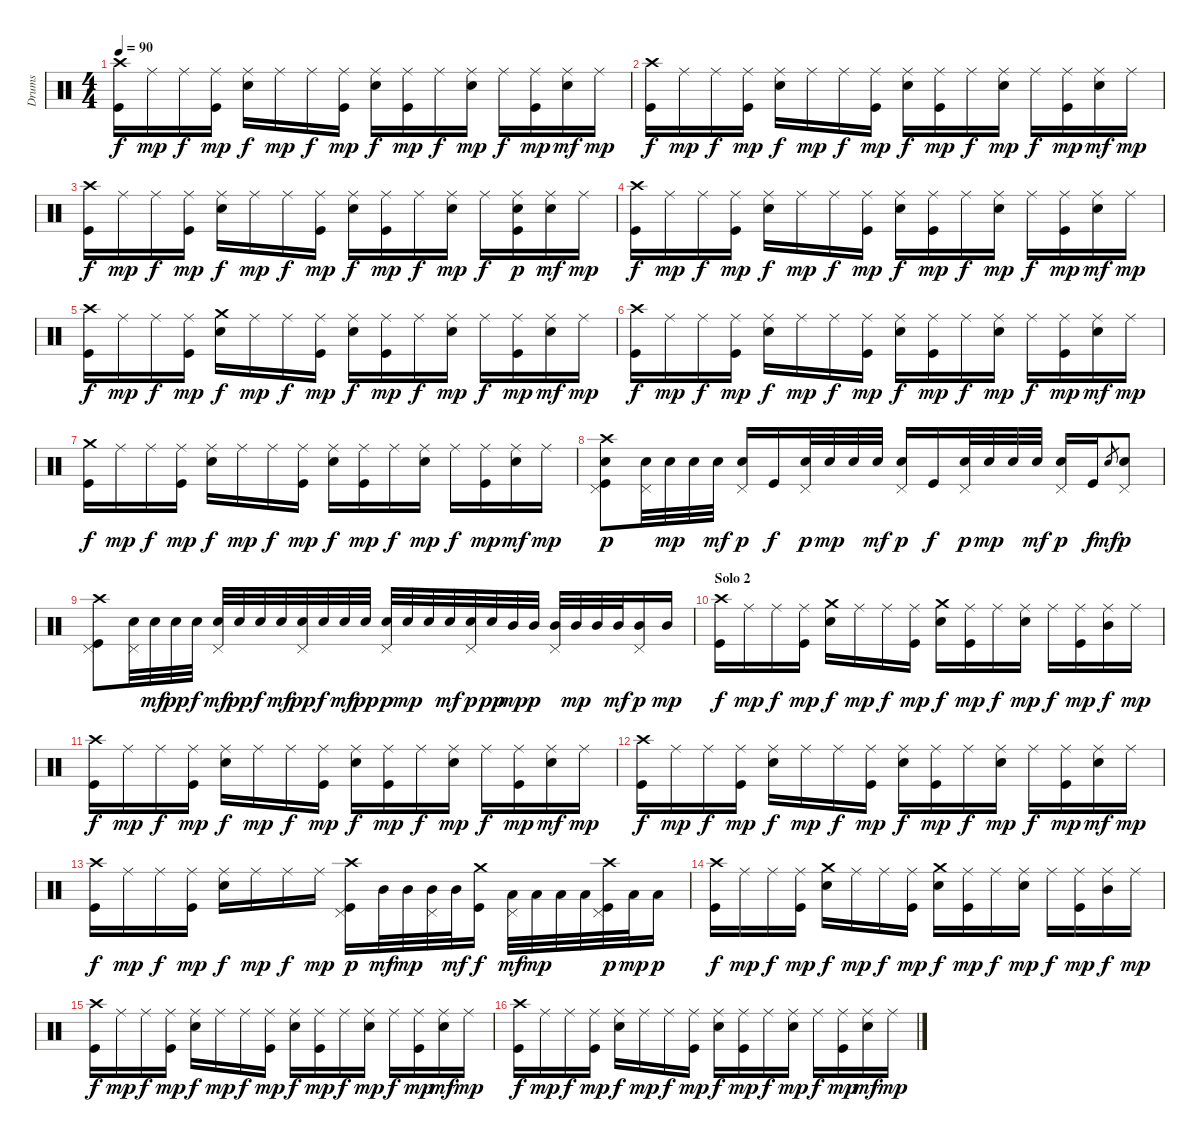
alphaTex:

\track ("Drums" "Drums") {instrument percussion}
\staff {score}
\articulation defaults
\ts (4 4)
\tempo 90
\clef neutral
\ks c
("Crash high (hit)" "Kick (hit)").16{dy f} "Ride (middle)".16{dy mp} "Ride (middle)".16{dy f} ("Ride (middle)" "Kick (hit)").16{dy mp} ("Ride (middle)" "Snare (hit) 2").16{dy f} "Ride (middle)".16{dy mp} "Ride (middle)".16{dy f} ("Ride (middle)" "Kick (hit)").16{dy mp} ("Ride (middle)" "Snare (hit) 2").16{dy f} ("Ride (middle)" "Kick (hit)").16{dy mp} "Ride (middle)".16{dy f} ("Ride (middle)" "Snare (hit) 2").16{dy mp} "Ride (middle)".16{dy f} ("Ride (middle)" "Kick (hit)").16{dy mp} ("Ride (middle)" "Snare (hit) 2").16{dy mf} "Ride (middle)".16{dy mp} |
("Crash high (hit)" "Kick (hit)").16{dy f} "Ride (middle)".16{dy mp} "Ride (middle)".16{dy f} ("Ride (middle)" "Kick (hit)").16{dy mp} ("Ride (middle)" "Snare (hit) 2").16{dy f} "Ride (middle)".16{dy mp} "Ride (middle)".16{dy f} ("Ride (middle)" "Kick (hit)").16{dy mp} ("Ride (middle)" "Snare (hit) 2").16{dy f} ("Ride (middle)" "Kick (hit)").16{dy mp} "Ride (middle)".16{dy f} ("Ride (middle)" "Snare (hit) 2").16{dy mp} "Ride (middle)".16{dy f} ("Ride (middle)" "Kick (hit)").16{dy mp} ("Ride (middle)" "Snare (hit) 2").16{dy mf} "Ride (middle)".16{dy mp} |
("Crash high (hit)" "Kick (hit)").16{dy f} "Ride (middle)".16{dy mp} "Ride (middle)".16{dy f} ("Ride (middle)" "Kick (hit)").16{dy mp} ("Ride (middle)" "Snare (hit) 2").16{dy f} "Ride (middle)".16{dy mp} "Ride (middle)".16{dy f} ("Ride (middle)" "Kick (hit)").16{dy mp} ("Ride (middle)" "Snare (hit) 2").16{dy f} ("Ride (middle)" "Kick (hit)").16{dy mp} "Ride (middle)".16{dy f} ("Ride (middle)" "Snare (hit) 2").16{dy mp} "Ride (middle)".16{dy f} ("Ride (middle)" "Snare (hit) 2" "Kick (hit)").16{dy p} ("Ride (middle)" "Snare (hit) 2").16{dy mf} "Ride (middle)".16{dy mp} |
("Crash high (hit)" "Kick (hit)").16{dy f} "Ride (middle)".16{dy mp} "Ride (middle)".16{dy f} ("Ride (middle)" "Kick (hit)").16{dy mp} ("Ride (middle)" "Snare (hit) 2").16{dy f} "Ride (middle)".16{dy mp} "Ride (middle)".16{dy f} ("Ride (middle)" "Kick (hit)").16{dy mp} ("Ride (middle)" "Snare (hit) 2").16{dy f} ("Ride (middle)" "Kick (hit)").16{dy mp} "Ride (middle)".16{dy f} ("Ride (middle)" "Snare (hit) 2").16{dy mp} "Ride (middle)".16{dy f} ("Ride (middle)" "Kick (hit)").16{dy mp} ("Ride (middle)" "Snare (hit) 2").16{dy mf} "Ride (middle)".16{dy mp} |
("Crash high (hit)" "Kick (hit)").16{dy f} "Ride (middle)".16{dy mp} "Ride (middle)".16{dy f} ("Ride (middle)" "Kick (hit)").16{dy mp} ("Crash medium (hit)" "Snare (hit) 2").16{dy f} "Ride (middle)".16{dy mp} "Ride (middle)".16{dy f} ("Ride (middle)" "Kick (hit)").16{dy mp} ("Ride (middle)" "Snare (hit) 2").16{dy f} ("Ride (middle)" "Kick (hit)").16{dy mp} "Ride (middle)".16{dy f} ("Ride (middle)" "Snare (hit) 2").16{dy mp} "Ride (middle)".16{dy f} ("Ride (middle)" "Kick (hit)").16{dy mp} ("Ride (middle)" "Snare (hit) 2").16{dy mf} "Ride (middle)".16{dy mp} |
("Crash high (hit)" "Kick (hit)").16{dy f} "Ride (middle)".16{dy mp} "Ride (middle)".16{dy f} ("Ride (middle)" "Kick (hit)").16{dy mp} ("Ride (middle)" "Snare (hit) 2").16{dy f} "Ride (middle)".16{dy mp} "Ride (middle)".16{dy f} ("Ride (middle)" "Kick (hit)").16{dy mp} ("Ride (middle)" "Snare (hit) 2").16{dy f} ("Ride (middle)" "Kick (hit)").16{dy mp} "Ride (middle)".16{dy f} ("Ride (middle)" "Snare (hit) 2").16{dy mp} "Ride (middle)".16{dy f} ("Ride (middle)" "Kick (hit)").16{dy mp} ("Ride (middle)" "Snare (hit) 2").16{dy mf} "Ride (middle)".16{dy mp} |
("Crash medium (hit)" "Kick (hit)").16{dy f} "Ride (middle)".16{dy mp} "Ride (middle)".16{dy f} ("Ride (middle)" "Kick (hit)").16{dy mp} ("Ride (middle)" "Snare (hit) 2").16{dy f} "Ride (middle)".16{dy mp} "Ride (middle)".16{dy f} ("Ride (middle)" "Kick (hit)").16{dy mp} ("Ride (middle)" "Snare (hit) 2").16{dy f} ("Ride (middle)" "Kick (hit)").16{dy mp} "Ride (middle)".16{dy f} ("Ride (middle)" "Snare (hit) 2").16{dy mp} "Ride (middle)".16{dy f} ("Ride (middle)" "Kick (hit)").16{dy mp} ("Ride (middle)" "Snare (hit) 2").16{dy mf} "Ride (middle)".16{dy mp} |
("Crash high (hit)" "Pedal Hi-Hat (hit)" "Snare (hit) 2" "Kick (hit)").8{dy p} ("Pedal Hi-Hat (hit)" "Snare (hit) 2").32 "Snare (hit) 2".32{dy mp} "Snare (hit) 2".32 "Snare (hit) 2".32{dy mf} ("Pedal Hi-Hat (hit)" "Snare (hit) 2").16{dy p} "Kick (hit)".16{dy f} ("Pedal Hi-Hat (hit)" "Snare (hit) 2").32{dy p} "Snare (hit) 2".32{dy mp} "Snare (hit) 2".32 "Snare (hit) 2".32{dy mf} ("Pedal Hi-Hat (hit)" "Snare (hit) 2").16{dy p} "Kick (hit)".16{dy f} ("Pedal Hi-Hat (hit)" "Snare (hit) 2").32{dy p} "Snare (hit) 2".32{dy mp} "Snare (hit) 2".32 "Snare (hit) 2".32{dy mf} ("Pedal Hi-Hat (hit)" "Snare (hit) 2").16{dy p} "Kick (hit)".16{dy f} "Snare (hit) 2".8{gr dy mf} ("Pedal Hi-Hat (hit)" "Snare (hit) 2").8{dy p} |
("Crash high (hit)" "Pedal Hi-Hat (hit)" "Kick (hit)").8 ("Pedal Hi-Hat (hit)" "Snare (hit) 2").32 "Snare (hit) 2".32{dy mf} "Snare (hit) 2".32{dy pp} "Snare (hit) 2".32{dy f} ("Pedal Hi-Hat (hit)" "Snare (hit) 2").32{dy mf} "Snare (hit) 2".32{dy pp} "Snare (hit) 2".32{dy f} "Snare (hit) 2".32{dy mf} ("Pedal Hi-Hat (hit)" "Snare (hit) 2").32{dy pp} "Snare (hit) 2".32{dy f} "Snare (hit) 2".32{dy mf} "Snare (hit) 2".32{dy pp} ("Pedal Hi-Hat (hit)" "Snare (hit) 2").32{dy p} "Snare (hit) 2".32{dy mp} "Snare (hit) 2".32 "Snare (hit) 2".32{dy mf} ("Pedal Hi-Hat (hit)" "Snare (hit) 2").32{dy p} "Snare (hit) 2".32{dy pp} "Mid Tom (hit)".32{dy mp} "Mid Tom (hit)".32{dy p} ("Pedal Hi-Hat (hit)" "Mid Tom (hit)").32 "Mid Tom (hit)".32{dy mp} "Mid Tom (hit)".32 "Mid Tom (hit)".32{dy mf} ("Pedal Hi-Hat (hit)" "Mid Tom (hit)").16{dy p} "Mid Tom (hit)".16{dy mp} |
\section ("" "Solo 2")
("Crash high (hit)" "Kick (hit)").16{dy f} "Ride (middle)".16{dy mp} "Ride (middle)".16{dy f} ("Ride (middle)" "Kick (hit)").16{dy mp} ("Crash medium (hit)" "Snare (hit) 2").16{dy f} "Ride (middle)".16{dy mp} "Ride (middle)".16{dy f} ("Ride (middle)" "Kick (hit)").16{dy mp} ("Crash medium (hit)" "Snare (hit) 2").16{dy f} ("Ride (middle)" "Kick (hit)").16{dy mp} "Ride (middle)".16{dy f} ("Ride (middle)" "Snare (hit) 2").16{dy mp} "Ride (middle)".16{dy f} ("Ride (middle)" "Kick (hit)").16{dy mp} ("Ride (middle)" "Mid Tom (hit)").16{dy f} "Ride (middle)".16{dy mp} |
("Crash high (hit)" "Kick (hit)").16{dy f} "Ride (middle)".16{dy mp} "Ride (middle)".16{dy f} ("Ride (middle)" "Kick (hit)").16{dy mp} ("Ride (middle)" "Snare (hit) 2").16{dy f} "Ride (middle)".16{dy mp} "Ride (middle)".16{dy f} ("Ride (middle)" "Kick (hit)").16{dy mp} ("Ride (middle)" "Snare (hit) 2").16{dy f} ("Ride (middle)" "Kick (hit)").16{dy mp} "Ride (middle)".16{dy f} ("Ride (middle)" "Snare (hit) 2").16{dy mp} "Ride (middle)".16{dy f} ("Ride (middle)" "Kick (hit)").16{dy mp} ("Ride (middle)" "Snare (hit) 2").16{dy mf} "Ride (middle)".16{dy mp} |
("Crash high (hit)" "Kick (hit)").16{dy f} "Ride (middle)".16{dy mp} "Ride (middle)".16{dy f} ("Ride (middle)" "Kick (hit)").16{dy mp} ("Ride (middle)" "Snare (hit) 2").16{dy f} "Ride (middle)".16{dy mp} "Ride (middle)".16{dy f} ("Ride (middle)" "Kick (hit)").16{dy mp} ("Ride (middle)" "Snare (hit) 2").16{dy f} ("Ride (middle)" "Kick (hit)").16{dy mp} "Ride (middle)".16{dy f} ("Ride (middle)" "Snare (hit) 2").16{dy mp} "Ride (middle)".16{dy f} ("Ride (middle)" "Kick (hit)").16{dy mp} ("Ride (middle)" "Snare (hit) 2").16{dy mf} "Ride (middle)".16{dy mp} |
("Crash high (hit)" "Kick (hit)").16{dy f} "Ride (middle)".16{dy mp} "Ride (middle)".16{dy f} ("Ride (middle)" "Kick (hit)").16{dy mp} ("Ride (middle)" "Snare (hit) 2").16{dy f} "Ride (middle)".16{dy mp} "Ride (middle)".16{dy f} "Ride (middle)".16{dy mp} ("Crash high (hit)" "Pedal Hi-Hat (hit)" "Kick (hit)").16{dy p} "Mid Tom (hit)".32{dy mf} "Mid Tom (hit)".32{dy mp} ("Pedal Hi-Hat (hit)" "Mid Tom (hit)").32 "Mid Tom (hit)".32{dy mf} ("Crash medium (hit)" "Kick (hit)").16{dy f} ("Pedal Hi-Hat (hit)" "Low Tom (hit)").32{dy mf} "Low Tom (hit)".32{dy mp} "Low Tom (hit)".32 "Low Tom (hit)".32 ("Crash high (hit)" "Pedal Hi-Hat (hit)" "Kick (hit)").32{dy p} "Low Tom (hit)".32{dy mp} "Low Tom (hit)".16{dy p} |
("Crash high (hit)" "Kick (hit)").16{dy f} "Ride (middle)".16{dy mp} "Ride (middle)".16{dy f} ("Ride (middle)" "Kick (hit)").16{dy mp} ("Crash medium (hit)" "Snare (hit) 2").16{dy f} "Ride (middle)".16{dy mp} "Ride (middle)".16{dy f} ("Ride (middle)" "Kick (hit)").16{dy mp} ("Crash medium (hit)" "Snare (hit) 2").16{dy f} ("Ride (middle)" "Kick (hit)").16{dy mp} "Ride (middle)".16{dy f} ("Ride (middle)" "Snare (hit) 2").16{dy mp} "Ride (middle)".16{dy f} ("Ride (middle)" "Kick (hit)").16{dy mp} ("Ride (middle)" "Mid Tom (hit)").16{dy f} "Ride (middle)".16{dy mp} |
("Crash high (hit)" "Kick (hit)").16{dy f} "Ride (middle)".16{dy mp} "Ride (middle)".16{dy f} ("Ride (middle)" "Kick (hit)").16{dy mp} ("Ride (middle)" "Snare (hit) 2").16{dy f} "Ride (middle)".16{dy mp} "Ride (middle)".16{dy f} ("Ride (middle)" "Kick (hit)").16{dy mp} ("Ride (middle)" "Snare (hit) 2").16{dy f} ("Ride (middle)" "Kick (hit)").16{dy mp} "Ride (middle)".16{dy f} ("Ride (middle)" "Snare (hit) 2").16{dy mp} "Ride (middle)".16{dy f} ("Ride (middle)" "Kick (hit)").16{dy mp} ("Ride (middle)" "Snare (hit) 2").16{dy mf} "Ride (middle)".16{dy mp} |
("Crash high (hit)" "Kick (hit)").16{dy f} "Ride (middle)".16{dy mp} "Ride (middle)".16{dy f} ("Ride (middle)" "Kick (hit)").16{dy mp} ("Ride (middle)" "Snare (hit) 2").16{dy f} "Ride (middle)".16{dy mp} "Ride (middle)".16{dy f} ("Ride (middle)" "Kick (hit)").16{dy mp} ("Ride (middle)" "Snare (hit) 2").16{dy f} ("Ride (middle)" "Kick (hit)").16{dy mp} "Ride (middle)".16{dy f} ("Ride (middle)" "Snare (hit) 2").16{dy mp} "Ride (middle)".16{dy f} ("Ride (middle)" "Kick (hit)").16{dy mp} ("Ride (middle)" "Snare (hit) 2").16{dy mf} "Ride (middle)".16{dy mp}
